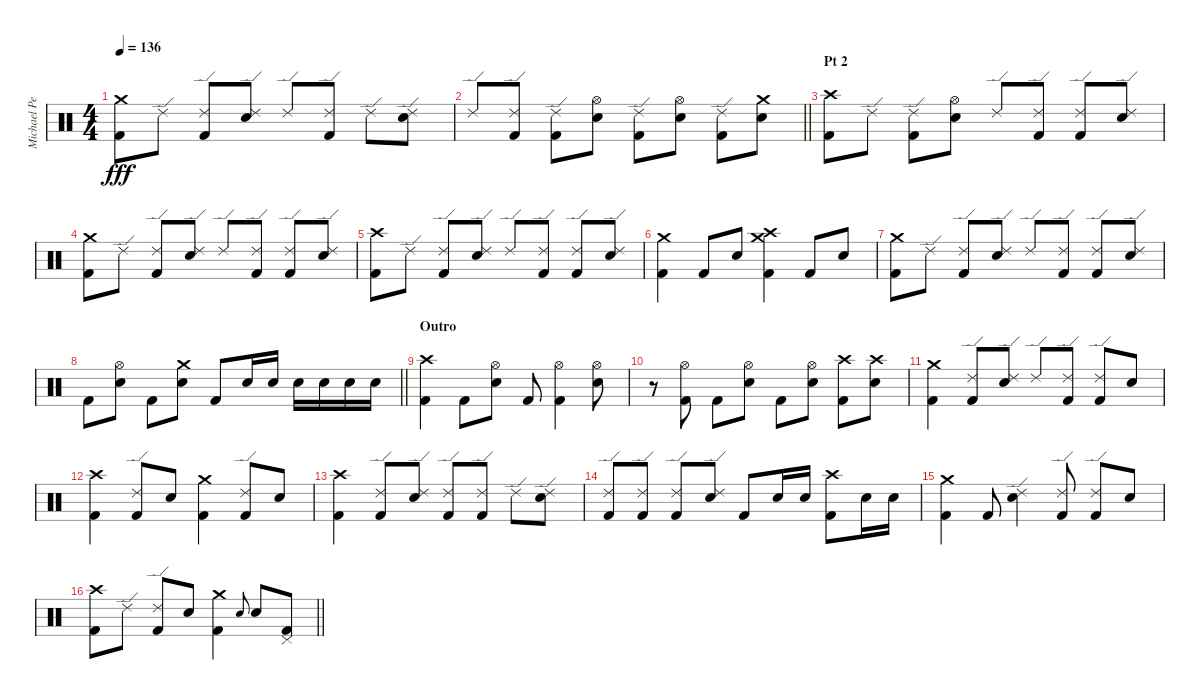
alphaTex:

\track ("Michael Pedicone [Drums]" "Michael Pe") {instrument percussion}
\staff
\articulation defaults
\ts (4 4)
\tempo 136
\clef neutral
\ks c
("Crash medium (hit)" "Kick (hit) 2").8{dy fff} "Ride (edge) 2".8 ("Ride (edge) 2" "Kick (hit) 2").8 ("Ride (edge) 2" "Electric Snare (hit)").8 "Ride (edge) 2".8 ("Ride (edge) 2" "Kick (hit) 2").8 "Ride (edge) 2".8 ("Ride (edge) 2" "Electric Snare (hit)").8 |
\barLineRight lightlight "Ride (edge) 2".8
("Ride (edge) 2" "Kick (hit) 2").8 ("Ride (edge) 2" "Kick (hit) 2").8 ("Hi-Hat (open)" "Electric Snare (hit)").8 ("Ride (edge) 2" "Kick (hit) 2").8 ("Hi-Hat (open)" "Electric Snare (hit)").8 ("Ride (edge) 2" "Kick (hit) 2").8 ("Crash medium (hit)" "Electric Snare (hit)").8 |
\section ("" "Pt 2")
("Crash high (hit)" "Kick (hit) 2").8 "Ride (edge) 2".8 ("Ride (edge) 2" "Kick (hit) 2").8 ("Hi-Hat (open)" "Electric Snare (hit)").8 "Ride (edge) 2".8 ("Ride (edge) 2" "Kick (hit) 2").8 ("Ride (edge) 2" "Kick (hit) 2").8 ("Ride (edge) 2" "Electric Snare (hit)").8 |
("Crash medium (hit)" "Kick (hit) 2").8 "Ride (edge) 2".8 ("Ride (edge) 2" "Kick (hit) 2").8 ("Ride (edge) 2" "Electric Snare (hit)").8 "Ride (edge) 2".8 ("Ride (edge) 2" "Kick (hit) 2").8 ("Ride (edge) 2" "Kick (hit) 2").8 ("Ride (edge) 2" "Electric Snare (hit)").8 |
("Crash high (hit)" "Kick (hit) 2").8 "Ride (edge) 2".8 ("Ride (edge) 2" "Kick (hit) 2").8 ("Ride (edge) 2" "Electric Snare (hit)").8 "Ride (edge) 2".8 ("Ride (edge) 2" "Kick (hit) 2").8 ("Ride (edge) 2" "Kick (hit) 2").8 ("Ride (edge) 2" "Electric Snare (hit)").8 |
("Crash medium (hit)" "Kick (hit) 2").4 "Kick (hit) 2".8 "Electric Snare (hit)".8 ("Crash high (hit)" "Crash medium (hit)" "Kick (hit) 2").4 "Kick (hit) 2".8 "Electric Snare (hit)".8 |
("Crash medium (hit)" "Kick (hit) 2").8 "Ride (edge) 2".8 ("Ride (edge) 2" "Kick (hit) 2").8 ("Ride (edge) 2" "Electric Snare (hit)").8 "Ride (edge) 2".8 ("Ride (edge) 2" "Kick (hit) 2").8 ("Ride (edge) 2" "Kick (hit) 2").8 ("Ride (edge) 2" "Electric Snare (hit)").8 |
\barLineRight lightlight "Kick (hit) 2".8
("Hi-Hat (open)" "Electric Snare (hit)").8 "Kick (hit) 2".8 ("Crash medium (hit)" "Electric Snare (hit)").8 "Kick (hit) 2".8 "Electric Snare (hit)".16 "Electric Snare (hit)".16 "Electric Snare (hit)".16 "Electric Snare (hit)".16 "Electric Snare (hit)".16 "Electric Snare (hit)".16 |
\section ("" "Outro")
("Crash high (hit)" "Kick (hit) 2").4 "Kick (hit) 2".8 ("Hi-Hat (open)" "Electric Snare (hit)").8 "Kick (hit) 2".8 ("Hi-Hat (open)" "Kick (hit) 2").4 ("Hi-Hat (open)" "Electric Snare (hit)").8 |
r.8 ("Hi-Hat (open)" "Kick (hit) 2").8 "Kick (hit) 2".8 ("Hi-Hat (open)" "Electric Snare (hit)").8 "Kick (hit) 2".8 ("Hi-Hat (open)" "Electric Snare (hit)").8 ("Crash high (hit)" "Kick (hit) 2").8 ("Crash high (hit)" "Electric Snare (hit)").8 |
("Crash medium (hit)" "Kick (hit) 2").4 ("Ride (edge) 2" "Kick (hit) 2").8 ("Ride (edge) 2" "Electric Snare (hit)").8 "Ride (edge) 2".8 ("Ride (edge) 2" "Kick (hit) 2").8 ("Ride (edge) 2" "Kick (hit) 2").8 "Electric Snare (hit)".8 |
("Crash high (hit)" "Kick (hit) 2").4 ("Ride (edge) 2" "Kick (hit) 2").8 "Electric Snare (hit)".8 ("Crash medium (hit)" "Kick (hit) 2").4 ("Ride (edge) 2" "Kick (hit) 2").8 "Electric Snare (hit)".8 |
("Crash high (hit)" "Kick (hit) 2").4 ("Ride (edge) 2" "Kick (hit) 2").8 ("Ride (edge) 2" "Electric Snare (hit)").8 ("Ride (edge) 2" "Kick (hit) 2").8 ("Ride (edge) 2" "Kick (hit) 2").8 "Ride (edge) 2".8 ("Ride (edge) 2" "Electric Snare (hit)").8 |
("Ride (edge) 2" "Kick (hit) 2").8 ("Ride (edge) 2" "Kick (hit) 2").8 ("Ride (edge) 2" "Kick (hit) 2").8 ("Ride (edge) 2" "Electric Snare (hit)").8 "Kick (hit) 2".8 "Electric Snare (hit)".16 "Electric Snare (hit)".16 ("Crash high (hit)" "Kick (hit) 2").8 "Electric Snare (hit)".16 "Electric Snare (hit)".16 |
("Crash medium (hit)" "Kick (hit) 2").4 "Kick (hit) 2".8 ("Ride (edge) 2" "Electric Snare (hit)").4 ("Ride (edge) 2" "Kick (hit) 2").8 ("Ride (edge) 2" "Kick (hit) 2").8 "Electric Snare (hit)".8 |
\barLineRight lightlight
("Crash high (hit)" "Kick (hit) 2").8 "Ride (edge) 2".8 ("Ride (edge) 2" "Kick (hit) 2").8 "Electric Snare (hit)".8 ("Crash medium (hit)" "Kick (hit) 2").4 "Electric Snare (hit)".8{gr onbeat} "Electric Snare (hit)".8 ("Pedal Hi-Hat (hit)" "Kick (hit) 2").8
